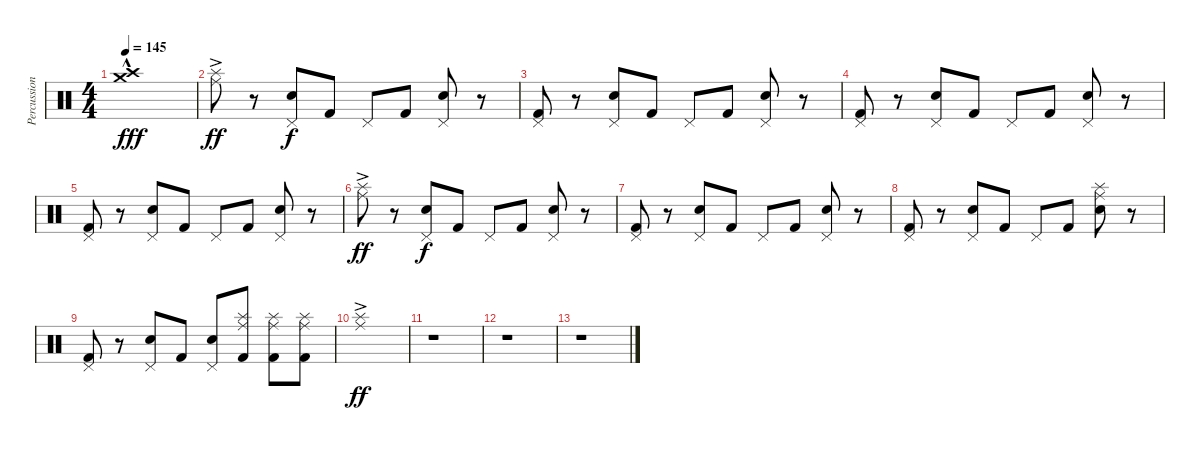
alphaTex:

\track ("Percussion" "Percussion") {instrument percussion}
\staff {score}
\articulation defaults
\ts (4 4)
\tempo 145
\clef neutral
\ks c
("Crash high (hit)"{hac} "Crash medium (hit)"{hac}).1{dy fff} |
("Ride (middle)" "Splash (hit)"{ac}).8{dy ff} r.8 ("Pedal Hi-Hat (hit)" "Electric Snare (hit)").8{dy f} "Kick (hit) 2".8 "Pedal Hi-Hat (hit)".8 "Kick (hit) 2".8 ("Pedal Hi-Hat (hit)" "Electric Snare (hit)").8 r.8 |
("Pedal Hi-Hat (hit)" "Kick (hit) 2").8 r.8 ("Pedal Hi-Hat (hit)" "Electric Snare (hit)").8 "Kick (hit) 2".8 "Pedal Hi-Hat (hit)".8 "Kick (hit) 2".8 ("Pedal Hi-Hat (hit)" "Electric Snare (hit)").8 r.8 |
("Pedal Hi-Hat (hit)" "Kick (hit) 2").8 r.8 ("Pedal Hi-Hat (hit)" "Electric Snare (hit)").8 "Kick (hit) 2".8 "Pedal Hi-Hat (hit)".8 "Kick (hit) 2".8 ("Pedal Hi-Hat (hit)" "Electric Snare (hit)").8 r.8 |
("Pedal Hi-Hat (hit)" "Kick (hit) 2").8 r.8 ("Pedal Hi-Hat (hit)" "Electric Snare (hit)").8 "Kick (hit) 2".8 "Pedal Hi-Hat (hit)".8 "Kick (hit) 2".8 ("Pedal Hi-Hat (hit)" "Electric Snare (hit)").8 r.8 |
("Ride (middle)"{ac} "Splash (hit)"{ac}).8{dy ff} r.8 ("Pedal Hi-Hat (hit)" "Electric Snare (hit)").8{dy f} "Kick (hit) 2".8 "Pedal Hi-Hat (hit)".8 "Kick (hit) 2".8 ("Pedal Hi-Hat (hit)" "Electric Snare (hit)").8 r.8 |
("Pedal Hi-Hat (hit)" "Kick (hit) 2").8 r.8 ("Pedal Hi-Hat (hit)" "Electric Snare (hit)").8 "Kick (hit) 2".8 "Pedal Hi-Hat (hit)".8 "Kick (hit) 2".8 ("Pedal Hi-Hat (hit)" "Electric Snare (hit)").8 r.8 |
("Pedal Hi-Hat (hit)" "Kick (hit) 2").8 r.8 ("Pedal Hi-Hat (hit)" "Electric Snare (hit)").8 "Kick (hit) 2".8 "Pedal Hi-Hat (hit)".8 "Kick (hit) 2".8 ("Ride (middle)" "Splash (hit)" "Electric Snare (hit)").8 r.8 |
("Pedal Hi-Hat (hit)" "Kick (hit) 2").8 r.8 ("Pedal Hi-Hat (hit)" "Electric Snare (hit)").8 "Kick (hit) 2".8 ("Pedal Hi-Hat (hit)" "Electric Snare (hit)").8 ("Ride (middle)" "Splash (hit)" "Kick (hit) 2").8 ("Ride (middle)" "Splash (hit)" "Kick (hit) 2").8 ("Ride (middle)" "Splash (hit)" "Kick (hit) 2").8 |
("Ride (middle)"{ac} "Splash (hit)"{ac}).1{dy ff} |
r.1 |
r.1 |
r.1
